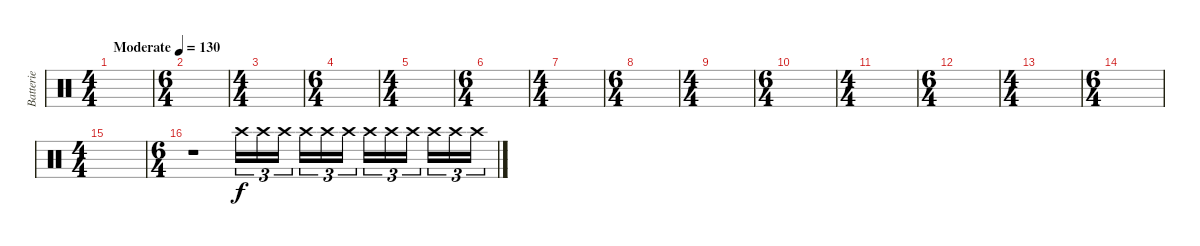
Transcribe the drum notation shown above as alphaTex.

\track ("Batterie" "Batterie") {instrument percussion}
\staff {score}
\articulation defaults
\ts (4 4)
\tempo (130 "Moderate")
\clef neutral
\ks c
|
\ts (6 4)
|
\ts (4 4)
|
\ts (6 4)
|
\ts (4 4)
|
\ts (6 4)
|
\ts (4 4)
|
\ts (6 4)
|
\ts (4 4)
|
\ts (6 4)
|
\ts (4 4)
|
\ts (6 4)
|
\ts (4 4)
|
\ts (6 4)
|
\ts (4 4)
|
\ts (6 4)
r.1 "Crash high (hit)".16{tu (3 2)} "Crash high (hit)".16{tu (3 2)} "Crash high (hit)".16{tu (3 2) beam splitsecondary} "Crash high (hit)".16{tu (3 2)} "Crash high (hit)".16{tu (3 2)} "Crash high (hit)".16{tu (3 2) beam splitsecondary} "Crash high (hit)".16{tu (3 2)} "Crash high (hit)".16{tu (3 2)} "Crash high (hit)".16{tu (3 2) beam splitsecondary} "Crash high (hit)".16{tu (3 2)} "Crash high (hit)".16{tu (3 2)} "Crash high (hit)".16{tu (3 2)}
